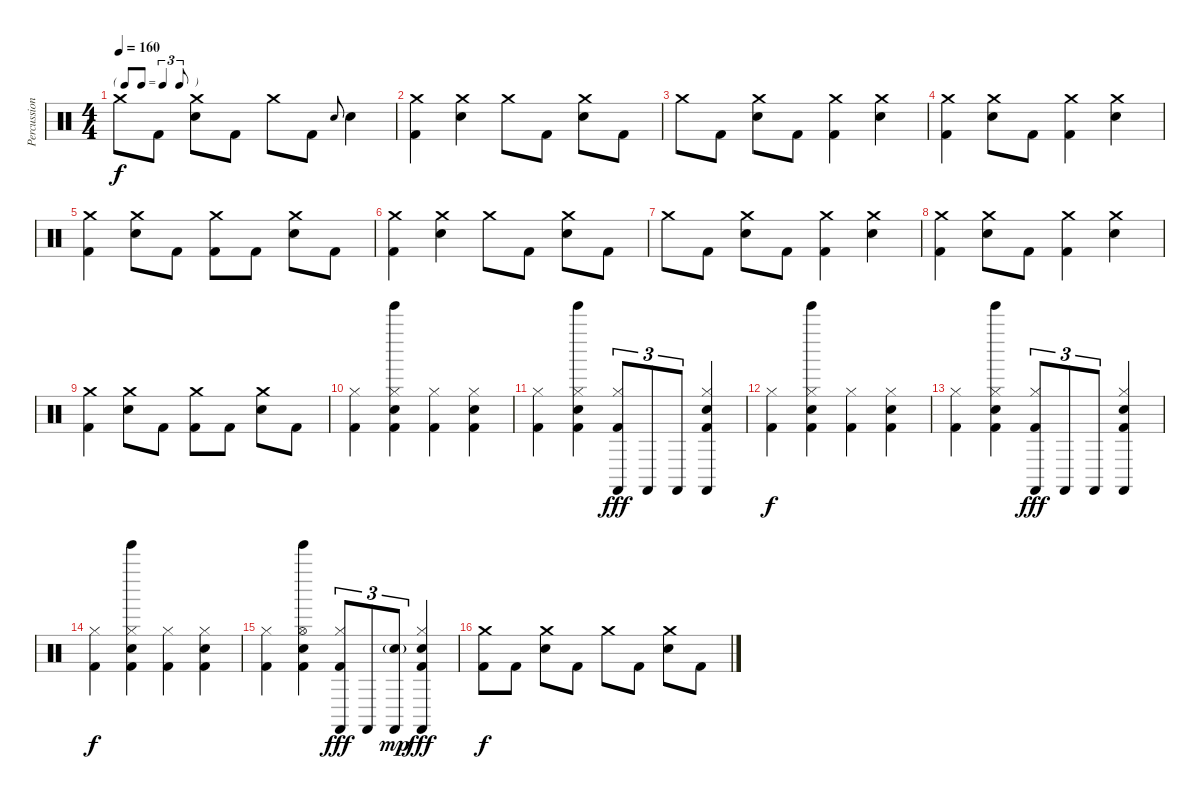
\track ("Percussion" "Percussion") {instrument percussion}
\staff {score}
\articulation defaults
\ts (4 4)
\tf triplet8th
\tempo 160
\clef neutral
\ks c "Crash medium (hit)".8{dy f} "Kick (hit) 2".8
("Crash medium (hit)" "Electric Snare (hit)").8 "Kick (hit) 2".8 "Crash medium (hit)".8 "Kick (hit) 2".8 "Electric Snare (hit)".8{gr onbeat} "Electric Snare (hit)".4 |
("Crash medium (hit)" "Kick (hit) 2").4 ("Crash medium (hit)" "Electric Snare (hit)").4 "Crash medium (hit)".8 "Kick (hit) 2".8 ("Crash medium (hit)" "Electric Snare (hit)").8 "Kick (hit) 2".8 |
"Crash medium (hit)".8 "Kick (hit) 2".8 ("Crash medium (hit)" "Electric Snare (hit)").8 "Kick (hit) 2".8 ("Crash medium (hit)" "Kick (hit) 2").4 ("Crash medium (hit)" "Electric Snare (hit)").4 |
("Crash medium (hit)" "Kick (hit) 2").4 ("Crash medium (hit)" "Electric Snare (hit)").8 "Kick (hit) 2".8 ("Crash medium (hit)" "Kick (hit) 2").4 ("Crash medium (hit)" "Electric Snare (hit)").4 |
("Crash medium (hit)" "Kick (hit) 2").4 ("Crash medium (hit)" "Electric Snare (hit)").8 "Kick (hit) 2".8 ("Crash medium (hit)" "Kick (hit) 2").8 "Kick (hit) 2".8 ("Crash medium (hit)" "Electric Snare (hit)").8 "Kick (hit) 2".8 |
("Crash medium (hit)" "Kick (hit) 2").4 ("Crash medium (hit)" "Electric Snare (hit)").4 "Crash medium (hit)".8 "Kick (hit) 2".8 ("Crash medium (hit)" "Electric Snare (hit)").8 "Kick (hit) 2".8 |
"Crash medium (hit)".8 "Kick (hit) 2".8 ("Crash medium (hit)" "Electric Snare (hit)").8 "Kick (hit) 2".8 ("Crash medium (hit)" "Kick (hit) 2").4 ("Crash medium (hit)" "Electric Snare (hit)").4 |
("Crash medium (hit)" "Kick (hit) 2").4 ("Crash medium (hit)" "Electric Snare (hit)").8 "Kick (hit) 2".8 ("Crash medium (hit)" "Kick (hit) 2").4 ("Crash medium (hit)" "Electric Snare (hit)").4 |
("Crash medium (hit)" "Kick (hit) 2").4 ("Crash medium (hit)" "Electric Snare (hit)").8 "Kick (hit) 2".8 ("Crash medium (hit)" "Kick (hit) 2").8 "Kick (hit) 2".8 ("Crash medium (hit)" "Electric Snare (hit)").8 "Kick (hit) 2".8 |
("Hi-Hat (closed)" "Kick (hit) 2").4 ("Tinkle Bell (hit)" "Hi-Hat (closed)" "Electric Snare (hit)" "Kick (hit) 2").4 ("Hi-Hat (closed)" "Kick (hit) 2").4 ("Hi-Hat (closed)" "Electric Snare (hit)" "Kick (hit) 2").4 |
("Hi-Hat (closed)" "Kick (hit) 2").4 ("Tinkle Bell (hit)" "Hi-Hat (closed)" "Electric Snare (hit)" "Kick (hit) 2").4 ("Hi-Hat (closed)" "Castanets (hit)" "Kick (hit) 2").8{tu (3 2) dy fff} "Castanets (hit)".8{tu (3 2)} "Castanets (hit)".8{tu (3 2)} ("Hi-Hat (closed)" "Castanets (hit)" "Electric Snare (hit)" "Kick (hit) 2").4 |
("Hi-Hat (closed)" "Kick (hit) 2").4{dy f} ("Tinkle Bell (hit)" "Hi-Hat (closed)" "Electric Snare (hit)" "Kick (hit) 2").4 ("Hi-Hat (closed)" "Kick (hit) 2").4 ("Hi-Hat (closed)" "Electric Snare (hit)" "Kick (hit) 2").4 |
("Hi-Hat (closed)" "Kick (hit) 2").4 ("Tinkle Bell (hit)" "Hi-Hat (closed)" "Electric Snare (hit)" "Kick (hit) 2").4 ("Hi-Hat (closed)" "Castanets (hit)" "Kick (hit) 2").8{tu (3 2) dy fff} "Castanets (hit)".8{tu (3 2)} "Castanets (hit)".8{tu (3 2)} ("Hi-Hat (closed)" "Castanets (hit)" "Electric Snare (hit)" "Kick (hit) 2").4 |
("Hi-Hat (closed)" "Kick (hit) 2").4{dy f} ("Tinkle Bell (hit)" "Hi-Hat (closed)" "Electric Snare (hit)" "Kick (hit) 2").4 ("Hi-Hat (closed)" "Kick (hit) 2").4 ("Hi-Hat (closed)" "Electric Snare (hit)" "Kick (hit) 2").4 |
("Hi-Hat (closed)" "Kick (hit) 2").4 ("Tinkle Bell (hit)" "Hi-Hat (open)" "Electric Snare (hit)" "Kick (hit) 2").4 ("Hi-Hat (closed)" "Castanets (hit)" "Kick (hit) 2").8{tu (3 2) dy fff} "Castanets (hit)".8{tu (3 2)} ("Castanets (hit)" "Electric Snare (hit)"{g}).8{tu (3 2) dy mp} ("Hi-Hat (closed)" "Castanets (hit)" "Electric Snare (hit)" "Kick (hit) 2").4{dy fff} |
("Crash medium (hit)" "Kick (hit) 2").8{dy f} "Kick (hit) 2".8 ("Crash medium (hit)" "Electric Snare (hit)").8 "Kick (hit) 2".8 "Crash medium (hit)".8 "Kick (hit) 2".8 ("Crash medium (hit)" "Electric Snare (hit)").8 "Kick (hit) 2".8
